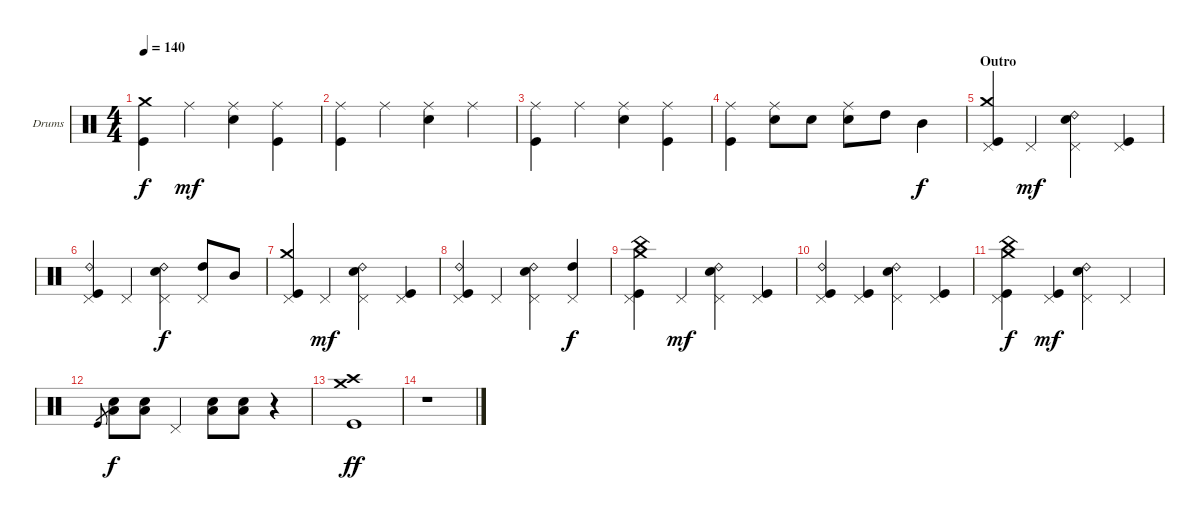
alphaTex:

\bracketExtendMode groupsimilarinstruments
\firstSystemTrackNameOrientation horizontal
\otherSystemsTrackNameOrientation horizontal
\track ("Drumkit (Ray Cooper)" "Drums") {instrument percussion}
\staff {score}
\articulation defaults
\ts (4 4)
\tempo 140
\clef neutral
\scale
1.07945
\ks c
("Kick (hit)" "Crash medium (hit)").4{dy f} "Ride (middle)".4{dy mf} ("Snare (hit) 2" "Ride (middle)").4 ("Kick (hit)" "Ride (middle)").4 |
\scale
0.973518 ("Kick (hit)" "Ride (middle)").4 "Ride (middle)".4 ("Snare (hit) 2" "Ride (middle)").4 "Ride (middle)".4 |
\scale
0.973518 ("Kick (hit)" "Ride (middle)").4 "Ride (middle)".4 ("Snare (hit) 2" "Ride (middle)").4 ("Kick (hit)" "Ride (middle)").4 |
\scale
0.973518 ("Kick (hit)" "Ride (middle)").4 ("Ride (middle)" "Snare (hit) 2").8 "Snare (hit) 2".8 ("Snare (hit) 2" "Ride (middle)").8 "High Tom (hit)".8 "Mid Tom (hit)".4{dy f} |
\section ("" "Outro")
\scale
1.07945 ("Kick (hit)" "Crash medium (hit)" "Pedal Hi-Hat (hit)").4 "Pedal Hi-Hat (hit)".4{dy mf} ("Ride (bell) 2" "Snare (hit) 2" "Pedal Hi-Hat (hit)").4 ("Pedal Hi-Hat (hit)" "Kick (hit)").4 |
\scale
0.973518 ("Ride (bell) 2" "Kick (hit)" "Pedal Hi-Hat (hit)").4 "Pedal Hi-Hat (hit)".4 ("Ride (bell) 2" "Snare (hit) 2" "Pedal Hi-Hat (hit)").4{dy f} ("Pedal Hi-Hat (hit)" "High Tom (hit)").8 "Mid Tom (hit)".8 |
\scale
0.973518 ("Kick (hit)" "Crash medium (hit)" "Pedal Hi-Hat (hit)").4 "Pedal Hi-Hat (hit)".4{dy mf} ("Ride (bell) 2" "Snare (hit) 2" "Pedal Hi-Hat (hit)").4 ("Pedal Hi-Hat (hit)" "Kick (hit)").4 |
\scale
0.973518 ("Ride (bell) 2" "Kick (hit)" "Pedal Hi-Hat (hit)").4 "Pedal Hi-Hat (hit)".4 ("Ride (bell) 2" "Snare (hit) 2" "Pedal Hi-Hat (hit)").4 ("Pedal Hi-Hat (hit)" "High Tom (hit)").4{dy f} |
\scale
1.07945 ("Kick (hit)" "Crash medium (hit)" "Pedal Hi-Hat (hit)" "China (hit)").4 "Pedal Hi-Hat (hit)".4{dy mf} ("Ride (bell) 2" "Snare (hit) 2" "Pedal Hi-Hat (hit)").4 ("Pedal Hi-Hat (hit)" "Kick (hit)").4 |
\scale
0.973518 ("Kick (hit)" "Pedal Hi-Hat (hit)" "Ride (bell) 2").4 ("Pedal Hi-Hat (hit)" "Kick (hit)").4 ("Ride (bell) 2" "Snare (hit) 2" "Pedal Hi-Hat (hit)").4 ("Pedal Hi-Hat (hit)" "Kick (hit)").4 |
\scale
0.973518 ("Kick (hit)" "Pedal Hi-Hat (hit)" "China (hit)" "Crash medium (hit)").4{dy f} ("Pedal Hi-Hat (hit)" "Kick (hit)").4{dy mf} ("Ride (bell) 2" "Snare (hit) 2" "Pedal Hi-Hat (hit)").4 "Pedal Hi-Hat (hit)".4 |
\scale
0.973518 "Kick (hit)".8{gr} ("Low Tom (hit)" "Snare (hit) 2").8{dy f} ("Snare (hit) 2" "Low Tom (hit)").8 "Pedal Hi-Hat (hit)".4 ("Snare (hit) 2" "Low Tom (hit)").8 ("Snare (hit) 2" "Low Tom (hit)").8 r.4 |
\scale
1.02648 ("Kick (hit)" "Crash medium (hit)" "Crash high (hit)").1{dy ff} |
\scale
0.973518 r.1
